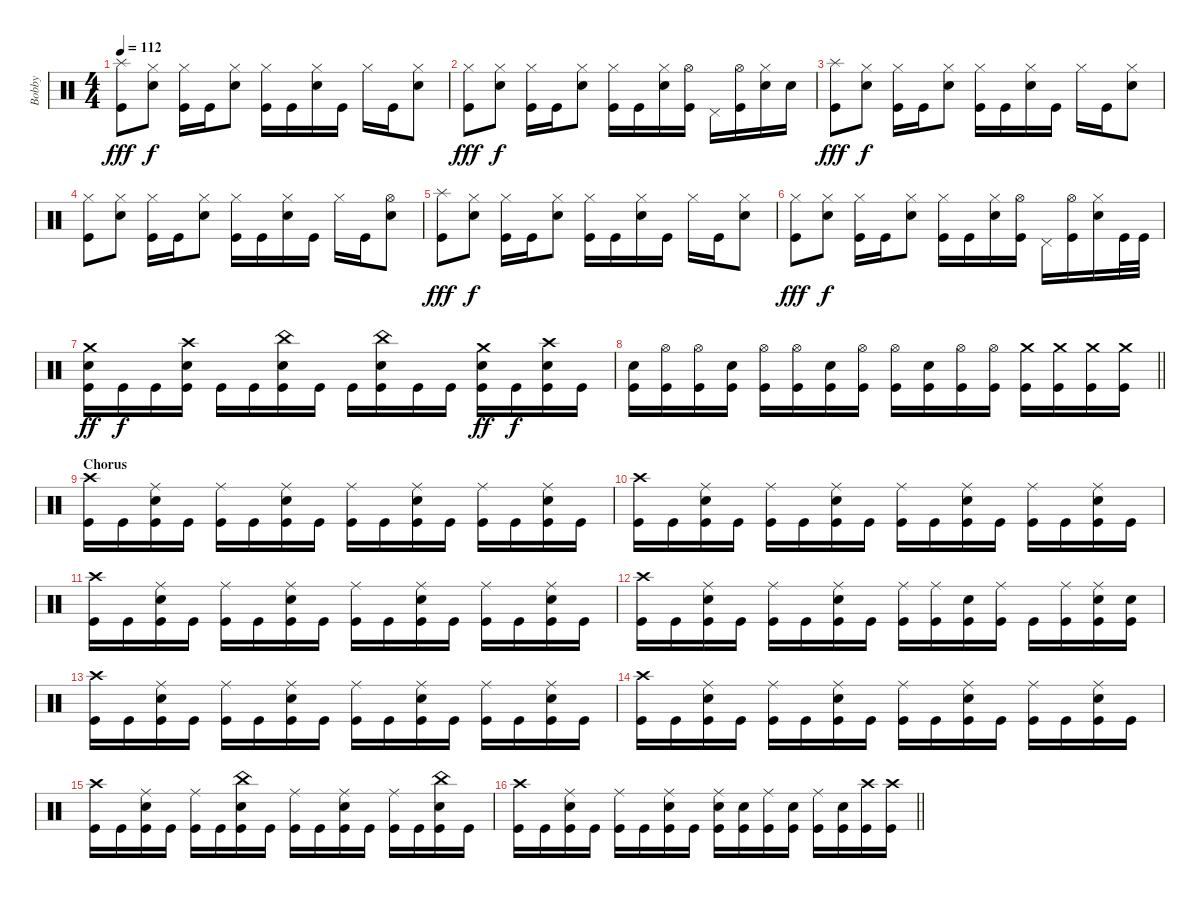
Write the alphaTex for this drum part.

\track ("Bobby" "Bobby") {instrument percussion}
\staff {score}
\articulation defaults
\ts (4 4)
\tempo 112
\clef neutral
\ks c
("Splash (hit)" "Kick (hit)").8{dy fff} ("Hi-Hat (closed)" "Electric Snare (hit)").8{dy f} ("Hi-Hat (closed)" "Kick (hit)").16 "Kick (hit)".16 ("Hi-Hat (closed)" "Electric Snare (hit)").8 ("Hi-Hat (closed)" "Kick (hit)").16 "Kick (hit)".16 ("Hi-Hat (closed)" "Electric Snare (hit)").16 "Kick (hit)".16 "Hi-Hat (closed)".16 "Kick (hit)".16 ("Hi-Hat (closed)" "Electric Snare (hit)").8 |
("Hi-Hat (closed)" "Kick (hit)").8{dy fff} ("Hi-Hat (closed)" "Electric Snare (hit)").8{dy f} ("Hi-Hat (closed)" "Kick (hit)").16 "Kick (hit)".16 ("Hi-Hat (closed)" "Electric Snare (hit)").8 ("Hi-Hat (closed)" "Kick (hit)").16 "Kick (hit)".16 ("Hi-Hat (closed)" "Electric Snare (hit)").16 ("Hi-Hat (open)" "Kick (hit)").16 "Pedal Hi-Hat (hit)".16 ("Hi-Hat (open)" "Kick (hit)").16 ("Hi-Hat (closed)" "Electric Snare (hit)").16 "Electric Snare (hit)".16 |
("Splash (hit)" "Kick (hit)").8{dy fff} ("Hi-Hat (closed)" "Electric Snare (hit)").8{dy f} ("Hi-Hat (closed)" "Kick (hit)").16 "Kick (hit)".16 ("Hi-Hat (closed)" "Electric Snare (hit)").8 ("Hi-Hat (closed)" "Kick (hit)").16 "Kick (hit)".16 ("Hi-Hat (closed)" "Electric Snare (hit)").16 "Kick (hit)".16 "Hi-Hat (closed)".16 "Kick (hit)".16 ("Hi-Hat (closed)" "Electric Snare (hit)").8 |
("Hi-Hat (closed)" "Kick (hit)").8 ("Hi-Hat (closed)" "Electric Snare (hit)").8 ("Hi-Hat (closed)" "Kick (hit)").16 "Kick (hit)".16 ("Hi-Hat (closed)" "Electric Snare (hit)").8 ("Hi-Hat (closed)" "Kick (hit)").16 "Kick (hit)".16 ("Hi-Hat (closed)" "Electric Snare (hit)").16 "Kick (hit)".16 "Hi-Hat (closed)".16 "Kick (hit)".16 ("Hi-Hat (open)" "Electric Snare (hit)").8 |
("Splash (hit)" "Kick (hit)").8{dy fff} ("Hi-Hat (closed)" "Electric Snare (hit)").8{dy f} ("Hi-Hat (closed)" "Kick (hit)").16 "Kick (hit)".16 ("Hi-Hat (closed)" "Electric Snare (hit)").8 ("Hi-Hat (closed)" "Kick (hit)").16 "Kick (hit)".16 ("Hi-Hat (closed)" "Electric Snare (hit)").16 "Kick (hit)".16 "Hi-Hat (closed)".16 "Kick (hit)".16 ("Hi-Hat (closed)" "Electric Snare (hit)").8 |
("Hi-Hat (closed)" "Kick (hit)").8{dy fff} ("Hi-Hat (closed)" "Electric Snare (hit)").8{dy f} ("Hi-Hat (closed)" "Kick (hit)").16 "Kick (hit)".16 ("Hi-Hat (closed)" "Electric Snare (hit)").8 ("Hi-Hat (closed)" "Kick (hit)").16 "Kick (hit)".16 ("Hi-Hat (closed)" "Electric Snare (hit)").16 ("Hi-Hat (open)" "Kick (hit)").16 "Pedal Hi-Hat (hit)".16 ("Hi-Hat (open)" "Kick (hit)").16 ("Hi-Hat (closed)" "Electric Snare (hit)").16 "Kick (hit)".32 "Kick (hit)".32 |
("Crash medium (hit)" "Electric Snare (hit)" "Kick (hit)").16{dy ff} "Kick (hit)".16{dy f} "Kick (hit)".16 ("Crash high (hit)" "Electric Snare (hit)" "Kick (hit)").16 "Kick (hit)".16 "Kick (hit)".16 ("China (hit)" "Electric Snare (hit)" "Kick (hit)").16 "Kick (hit)".16 "Kick (hit)".16 ("China (hit)" "Electric Snare (hit)" "Kick (hit)").16 "Kick (hit)".16 "Kick (hit)".16 ("Crash medium (hit)" "Electric Snare (hit)" "Kick (hit)").16{dy ff} "Kick (hit)".16{dy f} ("Crash high (hit)" "Electric Snare (hit)" "Kick (hit)").16 "Kick (hit)".16 |
\barLineRight lightlight
("Electric Snare (hit)" "Kick (hit)").16 ("Hi-Hat (open)" "Kick (hit)").16 ("Hi-Hat (open)" "Kick (hit)").16 ("Electric Snare (hit)" "Kick (hit)").16 ("Hi-Hat (open)" "Kick (hit)").16 ("Hi-Hat (open)" "Kick (hit)").16 ("Electric Snare (hit)" "Kick (hit)").16 ("Hi-Hat (open)" "Kick (hit)").16 ("Hi-Hat (open)" "Kick (hit)").16 ("Electric Snare (hit)" "Kick (hit)").16 ("Hi-Hat (open)" "Kick (hit)").16 ("Hi-Hat (open)" "Kick (hit)").16 ("Crash medium (hit)" "Kick (hit)").16 ("Crash medium (hit)" "Kick (hit)").16 ("Crash medium (hit)" "Kick (hit)").16 ("Crash medium (hit)" "Kick (hit)").16 |
\section ("" "Chorus")
("Crash high (hit)" "Kick (hit)").16 "Kick (hit)".16 ("Ride (middle)" "Electric Snare (hit)" "Kick (hit)").16 "Kick (hit)".16 ("Ride (middle)" "Kick (hit)").16 "Kick (hit)".16 ("Ride (middle)" "Electric Snare (hit)" "Kick (hit)").16 "Kick (hit)".16 ("Ride (middle)" "Kick (hit)").16 "Kick (hit)".16 ("Ride (middle)" "Electric Snare (hit)" "Kick (hit)").16 "Kick (hit)".16 ("Ride (middle)" "Kick (hit)").16 "Kick (hit)".16 ("Ride (middle)" "Electric Snare (hit)" "Kick (hit)").16 "Kick (hit)".16 |
("Crash high (hit)" "Kick (hit)").16 "Kick (hit)".16 ("Ride (middle)" "Electric Snare (hit)" "Kick (hit)").16 "Kick (hit)".16 ("Ride (middle)" "Kick (hit)").16 "Kick (hit)".16 ("Ride (middle)" "Electric Snare (hit)" "Kick (hit)").16 "Kick (hit)".16 ("Ride (middle)" "Kick (hit)").16 "Kick (hit)".16 ("Ride (middle)" "Electric Snare (hit)" "Kick (hit)").16 "Kick (hit)".16 ("Ride (middle)" "Kick (hit)").16 "Kick (hit)".16 ("Ride (middle)" "Electric Snare (hit)" "Kick (hit)").16 "Kick (hit)".16 |
("Crash high (hit)" "Kick (hit)").16 "Kick (hit)".16 ("Ride (middle)" "Electric Snare (hit)" "Kick (hit)").16 "Kick (hit)".16 ("Ride (middle)" "Kick (hit)").16 "Kick (hit)".16 ("Ride (middle)" "Electric Snare (hit)" "Kick (hit)").16 "Kick (hit)".16 ("Ride (middle)" "Kick (hit)").16 "Kick (hit)".16 ("Ride (middle)" "Electric Snare (hit)" "Kick (hit)").16 "Kick (hit)".16 ("Ride (middle)" "Kick (hit)").16 "Kick (hit)".16 ("Ride (middle)" "Electric Snare (hit)" "Kick (hit)").16 "Kick (hit)".16 |
("Crash high (hit)" "Kick (hit)").16 "Kick (hit)".16 ("Ride (middle)" "Electric Snare (hit)" "Kick (hit)").16 "Kick (hit)".16 ("Ride (middle)" "Kick (hit)").16 "Kick (hit)".16 ("Ride (middle)" "Electric Snare (hit)" "Kick (hit)").16 "Kick (hit)".16 ("Ride (middle)" "Kick (hit)").16 ("Ride (middle)" "Kick (hit)").16 ("Electric Snare (hit)" "Kick (hit)").16 ("Ride (middle)" "Kick (hit)").16 "Kick (hit)".16 ("Ride (middle)" "Kick (hit)").16 ("Ride (middle)" "Electric Snare (hit)" "Kick (hit)").16 ("Electric Snare (hit)" "Kick (hit)").16 |
("Crash high (hit)" "Kick (hit)").16 "Kick (hit)".16 ("Ride (middle)" "Electric Snare (hit)" "Kick (hit)").16 "Kick (hit)".16 ("Ride (middle)" "Kick (hit)").16 "Kick (hit)".16 ("Ride (middle)" "Electric Snare (hit)" "Kick (hit)").16 "Kick (hit)".16 ("Ride (middle)" "Kick (hit)").16 "Kick (hit)".16 ("Ride (middle)" "Electric Snare (hit)" "Kick (hit)").16 "Kick (hit)".16 ("Ride (middle)" "Kick (hit)").16 "Kick (hit)".16 ("Ride (middle)" "Electric Snare (hit)" "Kick (hit)").16 "Kick (hit)".16 |
("Crash high (hit)" "Kick (hit)").16 "Kick (hit)".16 ("Ride (middle)" "Electric Snare (hit)" "Kick (hit)").16 "Kick (hit)".16 ("Ride (middle)" "Kick (hit)").16 "Kick (hit)".16 ("Ride (middle)" "Electric Snare (hit)" "Kick (hit)").16 "Kick (hit)".16 ("Ride (middle)" "Kick (hit)").16 "Kick (hit)".16 ("Ride (middle)" "Electric Snare (hit)" "Kick (hit)").16 "Kick (hit)".16 ("Ride (middle)" "Kick (hit)").16 "Kick (hit)".16 ("Ride (middle)" "Electric Snare (hit)" "Kick (hit)").16 "Kick (hit)".16 |
("Crash high (hit)" "Kick (hit)").16 "Kick (hit)".16 ("Ride (middle)" "Electric Snare (hit)" "Kick (hit)").16 "Kick (hit)".16 ("Ride (middle)" "Kick (hit)").16 "Kick (hit)".16 ("China (hit)" "Electric Snare (hit)" "Kick (hit)").16 "Kick (hit)".16 ("Ride (middle)" "Kick (hit)").16 "Kick (hit)".16 ("Ride (middle)" "Electric Snare (hit)" "Kick (hit)").16 "Kick (hit)".16 ("Ride (middle)" "Kick (hit)").16 "Kick (hit)".16 ("China (hit)" "Electric Snare (hit)" "Kick (hit)").16 "Kick (hit)".16 |
\barLineRight lightlight
("Crash high (hit)" "Kick (hit)").16 "Kick (hit)".16 ("Ride (middle)" "Electric Snare (hit)" "Kick (hit)").16 "Kick (hit)".16 ("Ride (middle)" "Kick (hit)").16 "Kick (hit)".16 ("Ride (middle)" "Electric Snare (hit)" "Kick (hit)").16 "Kick (hit)".16 ("Ride (middle)" "Electric Snare (hit)" "Kick (hit)").16 ("Electric Snare (hit)" "Kick (hit)").16 ("Ride (middle)" "Kick (hit)").16 ("Electric Snare (hit)" "Kick (hit)").16 ("Ride (middle)" "Kick (hit)").16 ("Electric Snare (hit)" "Kick (hit)").16 ("Crash high (hit)" "Kick (hit)").16 ("Crash high (hit)" "Kick (hit)").16
